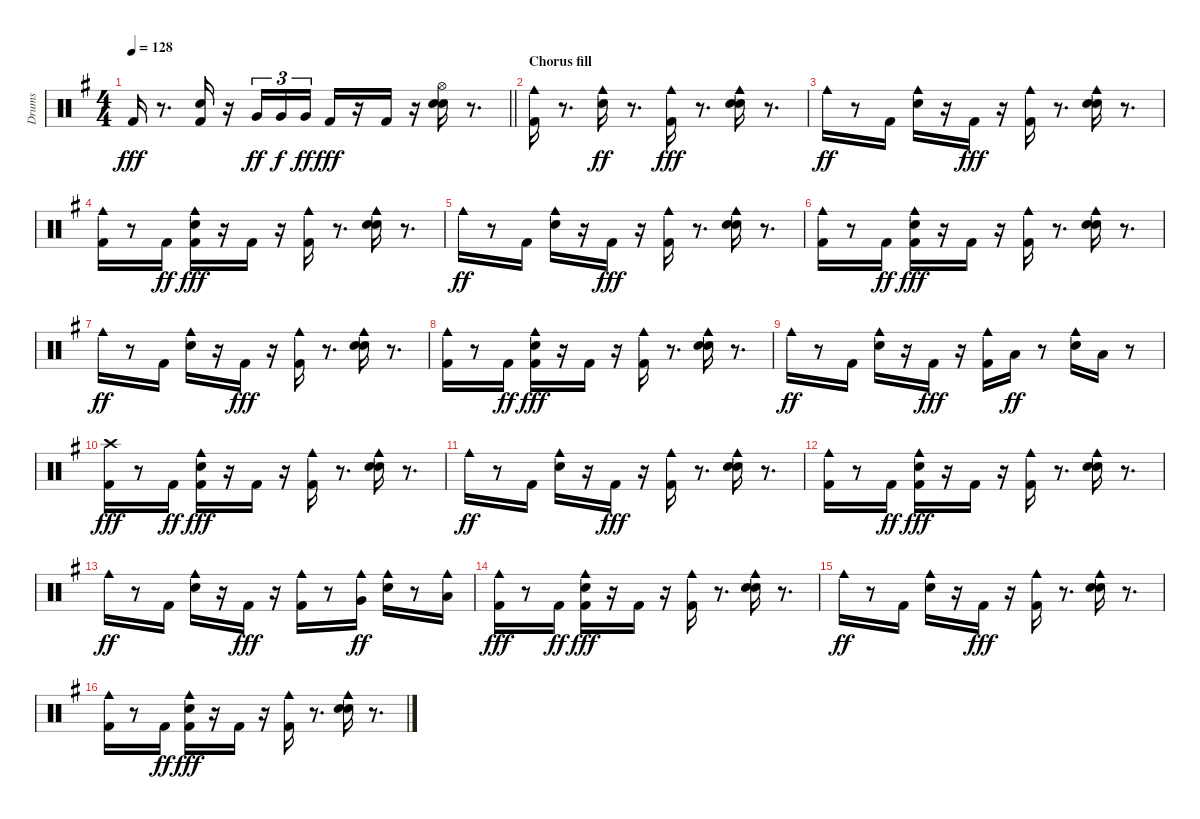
\track ("Drums" "Drums") {instrument percussion}
\staff {score}
\articulation defaults
\ts (4 4)
\tempo 128
\clef neutral
\barLineRight lightlight
\ks eminor "Kick (hit) 2".16{dy fff}
r.8{d} ("Hand Clap (hit)" "Kick (hit) 2").16 r.16 "Very Low Tom (hit)".16{tu (3 2) dy ff} "Very Low Tom (hit)".16{tu (3 2) dy f} "Very Low Tom (hit)".16{tu (3 2) dy ff} "Kick (hit) 2".16{dy fff} r.16 "Kick (hit) 2".16 r.16 ("Hand Clap (hit)" "Electric Snare (hit)" "Hi-Hat (open)").16 r.8{d} |
\section ("" "Chorus fill")
("Cowbell medium (hit)" "Kick (hit) 2").16 r.8{d} ("Hand Clap (hit)" "Cowbell medium (hit)").16{dy ff} r.8{d} ("Cowbell medium (hit)" "Kick (hit) 2").16{dy fff} r.8{d} ("Hand Clap (hit)" "Cowbell medium (hit)" "Electric Snare (hit)").16 r.8{d} |
"Cowbell medium (hit)".16{dy ff} r.8 "Kick (hit) 2".16 ("Hand Clap (hit)" "Cowbell medium (hit)").16 r.16 "Kick (hit) 2".16{dy fff} r.16 ("Cowbell medium (hit)" "Kick (hit) 2").16 r.8{d} ("Hand Clap (hit)" "Cowbell medium (hit)" "Electric Snare (hit)").16 r.8{d} |
("Cowbell medium (hit)" "Kick (hit) 2").16 r.8 "Kick (hit) 2".16{dy ff} ("Hand Clap (hit)" "Cowbell medium (hit)" "Kick (hit) 2").16{dy fff} r.16 "Kick (hit) 2".16 r.16 ("Cowbell medium (hit)" "Kick (hit) 2").16 r.8{d} ("Hand Clap (hit)" "Cowbell medium (hit)" "Electric Snare (hit)").16 r.8{d} |
"Cowbell medium (hit)".16{dy ff} r.8 "Kick (hit) 2".16 ("Hand Clap (hit)" "Cowbell medium (hit)").16 r.16 "Kick (hit) 2".16{dy fff} r.16 ("Cowbell medium (hit)" "Kick (hit) 2").16 r.8{d} ("Hand Clap (hit)" "Cowbell medium (hit)" "Electric Snare (hit)").16 r.8{d} |
("Cowbell medium (hit)" "Kick (hit) 2").16 r.8 "Kick (hit) 2".16{dy ff} ("Hand Clap (hit)" "Cowbell medium (hit)" "Kick (hit) 2").16{dy fff} r.16 "Kick (hit) 2".16 r.16 ("Cowbell medium (hit)" "Kick (hit) 2").16 r.8{d} ("Hand Clap (hit)" "Cowbell medium (hit)" "Electric Snare (hit)").16 r.8{d} |
"Cowbell medium (hit)".16{dy ff} r.8 "Kick (hit) 2".16 ("Hand Clap (hit)" "Cowbell medium (hit)").16 r.16 "Kick (hit) 2".16{dy fff} r.16 ("Cowbell medium (hit)" "Kick (hit) 2").16 r.8{d} ("Hand Clap (hit)" "Cowbell medium (hit)" "Electric Snare (hit)").16 r.8{d} |
("Cowbell medium (hit)" "Kick (hit) 2").16 r.8 "Kick (hit) 2".16{dy ff} ("Hand Clap (hit)" "Cowbell medium (hit)" "Kick (hit) 2").16{dy fff} r.16 "Kick (hit) 2".16 r.16 ("Cowbell medium (hit)" "Kick (hit) 2").16 r.8{d} ("Hand Clap (hit)" "Cowbell medium (hit)" "Electric Snare (hit)").16 r.8{d} |
"Cowbell medium (hit)".16{dy ff} r.8 "Kick (hit) 2".16 ("Hand Clap (hit)" "Cowbell medium (hit)").16 r.16 "Kick (hit) 2".16{dy fff} r.16 ("Cowbell medium (hit)" "Kick (hit) 2").16 "Low Tom (hit)".16{dy ff} r.8 ("Hand Clap (hit)" "Cowbell medium (hit)").16 "Low Tom (hit)".16 r.8 |
("Kick (hit) 2" "Crash high (hit)").16{dy fff} r.8 "Kick (hit) 2".16{dy ff} ("Hand Clap (hit)" "Cowbell medium (hit)" "Kick (hit) 2").16{dy fff} r.16 "Kick (hit) 2".16 r.16 ("Cowbell medium (hit)" "Kick (hit) 2").16 r.8{d} ("Hand Clap (hit)" "Cowbell medium (hit)" "Electric Snare (hit)").16 r.8{d} |
"Cowbell medium (hit)".16{dy ff} r.8 "Kick (hit) 2".16 ("Hand Clap (hit)" "Cowbell medium (hit)").16 r.16 "Kick (hit) 2".16{dy fff} r.16 ("Cowbell medium (hit)" "Kick (hit) 2").16 r.8{d} ("Hand Clap (hit)" "Cowbell medium (hit)" "Electric Snare (hit)").16 r.8{d} |
("Cowbell medium (hit)" "Kick (hit) 2").16 r.8 "Kick (hit) 2".16{dy ff} ("Hand Clap (hit)" "Cowbell medium (hit)" "Kick (hit) 2").16{dy fff} r.16 "Kick (hit) 2".16 r.16 ("Cowbell medium (hit)" "Kick (hit) 2").16 r.8{d} ("Hand Clap (hit)" "Cowbell medium (hit)" "Electric Snare (hit)").16 r.8{d} |
"Cowbell medium (hit)".16{dy ff} r.8 "Kick (hit) 2".16 ("Hand Clap (hit)" "Cowbell medium (hit)").16 r.16 "Kick (hit) 2".16{dy fff} r.16 ("Cowbell medium (hit)" "Kick (hit) 2").16 r.8 ("Cowbell medium (hit)" "Very Low Tom (hit)").16{dy ff} ("Hand Clap (hit)" "Cowbell medium (hit)").16 r.8 ("Cowbell medium (hit)" "Low Floor Tom (hit)").16 |
("Cowbell medium (hit)" "Kick (hit) 2").16{dy fff} r.8 "Kick (hit) 2".16{dy ff} ("Hand Clap (hit)" "Cowbell medium (hit)" "Kick (hit) 2").16{dy fff} r.16 "Kick (hit) 2".16 r.16 ("Cowbell medium (hit)" "Kick (hit) 2").16 r.8{d} ("Hand Clap (hit)" "Cowbell medium (hit)" "Electric Snare (hit)").16 r.8{d} |
"Cowbell medium (hit)".16{dy ff} r.8 "Kick (hit) 2".16 ("Hand Clap (hit)" "Cowbell medium (hit)").16 r.16 "Kick (hit) 2".16{dy fff} r.16 ("Cowbell medium (hit)" "Kick (hit) 2").16 r.8{d} ("Hand Clap (hit)" "Cowbell medium (hit)" "Electric Snare (hit)").16 r.8{d} |
("Cowbell medium (hit)" "Kick (hit) 2").16 r.8 "Kick (hit) 2".16{dy ff} ("Hand Clap (hit)" "Cowbell medium (hit)" "Kick (hit) 2").16{dy fff} r.16 "Kick (hit) 2".16 r.16 ("Cowbell medium (hit)" "Kick (hit) 2").16 r.8{d} ("Hand Clap (hit)" "Cowbell medium (hit)" "Electric Snare (hit)").16 r.8{d}
